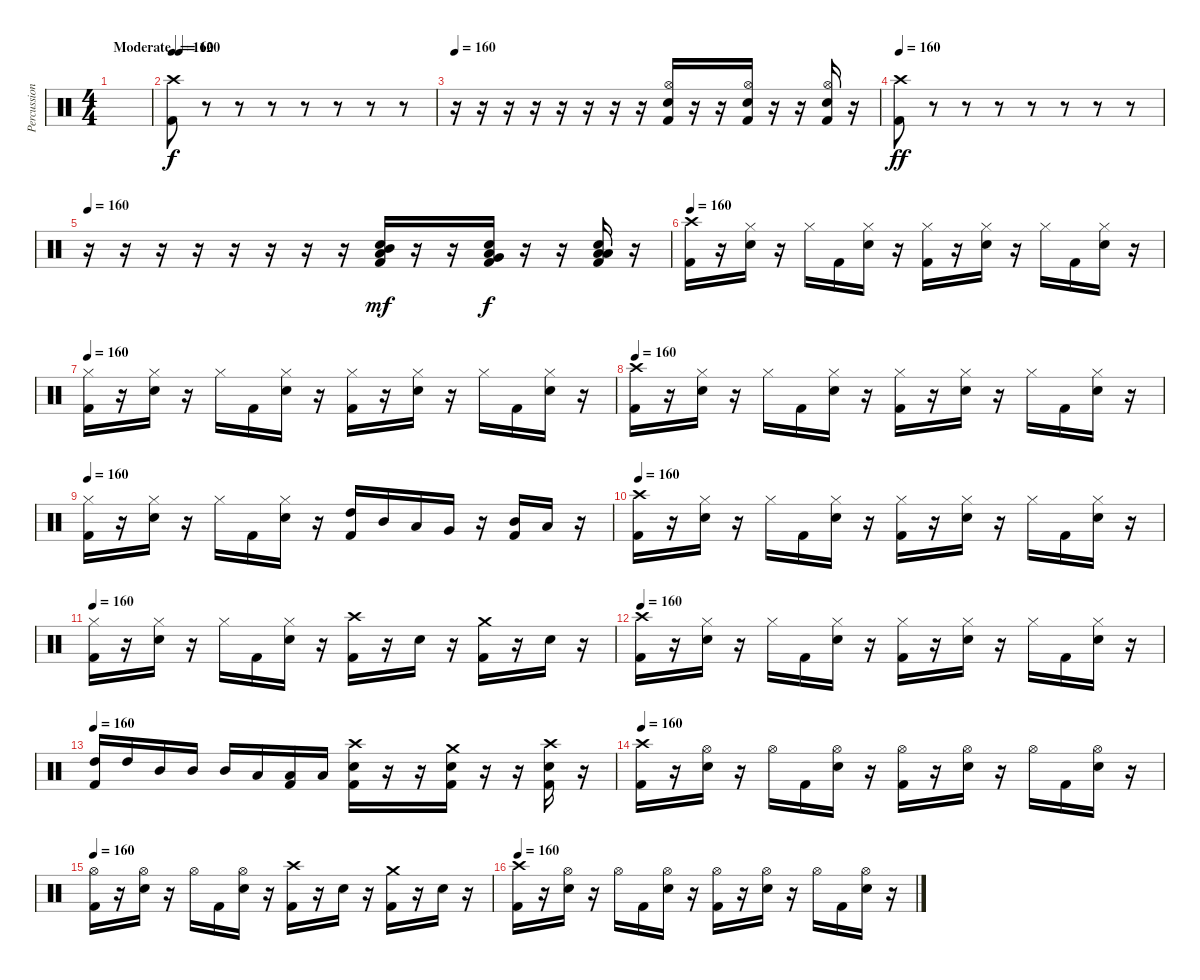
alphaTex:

\track ("Percussion" "Percussion") {instrument percussion}
\staff {score}
\articulation defaults
\ts (4 4)
\tempo (120 "Moderate")
\clef neutral
\ks c
|
\tempo 160
("Crash high (hit)" "Kick (hit) 2").8 r.8 r.8 r.8 r.8 r.8 r.8 r.8 |
\tempo 160
r.16 r.16 r.16 r.16 r.16 r.16 r.16 r.16 ("Hi-Hat (open)" "Snare (hit) 2" "Kick (hit) 2").16 r.16 r.16 ("Hi-Hat (open)" "Snare (hit) 2" "Kick (hit) 2").16 r.16 r.16 ("Hi-Hat (open)" "Snare (hit) 2" "Kick (hit) 2").16 r.16 |
\tempo 160
("Crash high (hit)" "Kick (hit) 2").8{dy ff} r.8 r.8 r.8 r.8 r.8 r.8 r.8 |
\tempo 160
r.16 r.16 r.16 r.16 r.16 r.16 r.16 r.16 ("Mid Tom (hit)" "Snare (hit) 2" "Low Tom (hit)" "Kick (hit) 2").16{dy mf} r.16 r.16 ("Low Tom (hit)" "Snare (hit) 2" "Very Low Tom (hit)" "Kick (hit) 2").16{dy f} r.16 r.16 ("Low Tom (hit)" "Snare (hit) 2" "Low Floor Tom (hit)" "Kick (hit) 2").16 r.16 |
\tempo 160
("Crash high (hit)" "Kick (hit) 2").16 r.16 ("Hi-Hat (closed)" "Snare (hit) 2").16 r.16 "Hi-Hat (closed)".16 "Kick (hit) 2".16 ("Hi-Hat (closed)" "Snare (hit) 2").16 r.16 ("Hi-Hat (closed)" "Kick (hit) 2").16 r.16 ("Hi-Hat (closed)" "Snare (hit) 2").16 r.16 "Hi-Hat (closed)".16 "Kick (hit) 2".16 ("Hi-Hat (closed)" "Snare (hit) 2").16 r.16 |
\tempo 160
("Hi-Hat (closed)" "Kick (hit) 2").16 r.16 ("Hi-Hat (closed)" "Snare (hit) 2").16 r.16 "Hi-Hat (closed)".16 "Kick (hit) 2".16 ("Hi-Hat (closed)" "Snare (hit) 2").16 r.16 ("Hi-Hat (closed)" "Kick (hit) 2").16 r.16 ("Hi-Hat (closed)" "Snare (hit) 2").16 r.16 "Hi-Hat (closed)".16 "Kick (hit) 2".16 ("Hi-Hat (closed)" "Snare (hit) 2").16 r.16 |
\tempo 160
("Crash high (hit)" "Kick (hit) 2").16 r.16 ("Hi-Hat (closed)" "Snare (hit) 2").16 r.16 "Hi-Hat (closed)".16 "Kick (hit) 2".16 ("Hi-Hat (closed)" "Snare (hit) 2").16 r.16 ("Hi-Hat (closed)" "Kick (hit) 2").16 r.16 ("Hi-Hat (closed)" "Snare (hit) 2").16 r.16 "Hi-Hat (closed)".16 "Kick (hit) 2".16 ("Hi-Hat (closed)" "Snare (hit) 2").16 r.16 |
\tempo 160
("Hi-Hat (closed)" "Kick (hit) 2").16 r.16 ("Hi-Hat (closed)" "Snare (hit) 2").16 r.16 "Hi-Hat (closed)".16 "Kick (hit) 2".16 ("Hi-Hat (closed)" "Snare (hit) 2").16 r.16 ("High Tom (hit)" "Kick (hit) 2").16 "Mid Tom (hit)".16 "Low Tom (hit)".16 "Very Low Tom (hit)".16 r.16 ("Mid Tom (hit)" "Kick (hit) 2").16 "Low Tom (hit)".16 r.16 |
\tempo 160
("Crash high (hit)" "Kick (hit) 2").16 r.16 ("Hi-Hat (closed)" "Snare (hit) 2").16 r.16 "Hi-Hat (closed)".16 "Kick (hit) 2".16 ("Hi-Hat (closed)" "Snare (hit) 2").16 r.16 ("Hi-Hat (closed)" "Kick (hit) 2").16 r.16 ("Hi-Hat (closed)" "Snare (hit) 2").16 r.16 "Hi-Hat (closed)".16 "Kick (hit) 2".16 ("Hi-Hat (closed)" "Snare (hit) 2").16 r.16 |
\tempo 160
("Hi-Hat (closed)" "Kick (hit) 2").16 r.16 ("Hi-Hat (closed)" "Snare (hit) 2").16 r.16 "Hi-Hat (closed)".16 "Kick (hit) 2".16 ("Hi-Hat (closed)" "Snare (hit) 2").16 r.16 ("Crash high (hit)" "Kick (hit) 2").16 r.16 "Snare (hit) 2".16 r.16 ("Crash medium (hit)" "Kick (hit) 2").16 r.16 "Snare (hit) 2".16 r.16 |
\tempo 160
("Crash high (hit)" "Kick (hit) 2").16 r.16 ("Hi-Hat (closed)" "Snare (hit) 2").16 r.16 "Hi-Hat (closed)".16 "Kick (hit) 2".16 ("Hi-Hat (closed)" "Snare (hit) 2").16 r.16 ("Hi-Hat (closed)" "Kick (hit) 2").16 r.16 ("Hi-Hat (closed)" "Snare (hit) 2").16 r.16 "Hi-Hat (closed)".16 "Kick (hit) 2".16 ("Hi-Hat (closed)" "Snare (hit) 2").16 r.16 |
\tempo 160
("High Tom (hit)" "Kick (hit) 2").16 "High Tom (hit)".16 "Mid Tom (hit)".16 "Mid Tom (hit)".16 "Mid Tom (hit)".16 "Low Tom (hit)".16 ("Low Tom (hit)" "Kick (hit) 2").16 "Low Tom (hit)".16 ("Crash high (hit)" "Snare (hit) 2" "Kick (hit) 2").16 r.16 r.16 ("Crash medium (hit)" "Snare (hit) 2" "Kick (hit) 2").16 r.16 r.16 ("Crash high (hit)" "Snare (hit) 2" "Kick (hit) 2").16 r.16 |
\tempo 160
("Crash high (hit)" "Kick (hit) 2").16 r.16 ("Hi-Hat (open)" "Snare (hit) 2").16 r.16 "Hi-Hat (open)".16 "Kick (hit) 2".16 ("Hi-Hat (open)" "Snare (hit) 2").16 r.16 ("Hi-Hat (open)" "Kick (hit) 2").16 r.16 ("Hi-Hat (open)" "Snare (hit) 2").16 r.16 "Hi-Hat (open)".16 "Kick (hit) 2".16 ("Hi-Hat (open)" "Snare (hit) 2").16 r.16 |
\tempo 160
("Hi-Hat (open)" "Kick (hit) 2").16 r.16 ("Hi-Hat (open)" "Snare (hit) 2").16 r.16 "Hi-Hat (open)".16 "Kick (hit) 2".16 ("Hi-Hat (open)" "Snare (hit) 2").16 r.16 ("Crash high (hit)" "Kick (hit) 2").16 r.16 "Snare (hit) 2".16 r.16 ("Crash medium (hit)" "Kick (hit) 2").16 r.16 "Snare (hit) 2".16 r.16 |
\tempo 160
("Crash high (hit)" "Kick (hit) 2").16 r.16 ("Hi-Hat (open)" "Snare (hit) 2").16 r.16 "Hi-Hat (open)".16 "Kick (hit) 2".16 ("Hi-Hat (open)" "Snare (hit) 2").16 r.16 ("Hi-Hat (open)" "Kick (hit) 2").16 r.16 ("Hi-Hat (open)" "Snare (hit) 2").16 r.16 "Hi-Hat (open)".16 "Kick (hit) 2".16 ("Hi-Hat (open)" "Snare (hit) 2").16 r.16
